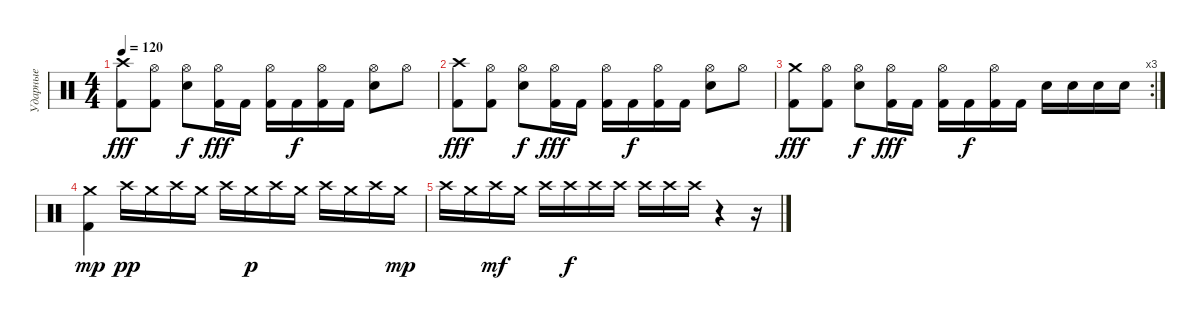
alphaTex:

\track ("Ударные" "Ударные") {instrument percussion}
\staff {score}
\articulation defaults
\ts (4 4)
\tempo 120
\clef neutral
\ks c
("Kick (hit) 2" "Crash high (hit)").8{dy fff} ("Kick (hit) 2" "Hi-Hat (open)").8 ("Electric Snare (hit)" "Hi-Hat (open)").8{dy f} ("Kick (hit) 2" "Hi-Hat (open)").16{dy fff} "Kick (hit) 2".16 ("Kick (hit) 2" "Hi-Hat (open)").16 "Kick (hit) 2".16{dy f} ("Kick (hit) 2" "Hi-Hat (open)").16 "Kick (hit) 2".16 ("Electric Snare (hit)" "Hi-Hat (open)").8 "Hi-Hat (open)".8 |
("Kick (hit) 2" "Crash high (hit)").8{dy fff} ("Kick (hit) 2" "Hi-Hat (open)").8 ("Electric Snare (hit)" "Hi-Hat (open)").8{dy f} ("Kick (hit) 2" "Hi-Hat (open)").16{dy fff} "Kick (hit) 2".16 ("Kick (hit) 2" "Hi-Hat (open)").16 "Kick (hit) 2".16{dy f} ("Kick (hit) 2" "Hi-Hat (open)").16 "Kick (hit) 2".16 ("Electric Snare (hit)" "Hi-Hat (open)").8 "Hi-Hat (open)".8 |
\rc 3
("Kick (hit) 2" "Crash medium (hit)").8{dy fff} ("Kick (hit) 2" "Hi-Hat (open)").8 ("Electric Snare (hit)" "Hi-Hat (open)").8{dy f} ("Kick (hit) 2" "Hi-Hat (open)").16{dy fff} "Kick (hit) 2".16 ("Kick (hit) 2" "Hi-Hat (open)").16 "Kick (hit) 2".16{dy f} ("Kick (hit) 2" "Hi-Hat (open)").16 "Kick (hit) 2".16 "Electric Snare (hit)".16 "Electric Snare (hit)".16 "Electric Snare (hit)".16 "Electric Snare (hit)".16 |
("Crash medium (hit)" "Kick (hit) 2").4{dy mp} "Crash high (hit)".16{dy pp} "Crash medium (hit)".16 "Crash high (hit)".16 "Crash medium (hit)".16 "Crash high (hit)".16 "Crash medium (hit)".16{dy p} "Crash high (hit)".16 "Crash medium (hit)".16 "Crash high (hit)".16 "Crash medium (hit)".16 "Crash high (hit)".16 "Crash medium (hit)".16{dy mp} |
"Crash high (hit)".16 "Crash medium (hit)".16 "Crash high (hit)".16{dy mf} "Crash medium (hit)".16 "Crash high (hit)".16 "Crash high (hit)".16{dy f} "Crash high (hit)".16 "Crash high (hit)".16 "Crash high (hit)".16 "Crash high (hit)".16 "Crash high (hit)".16 r.4 r.16
